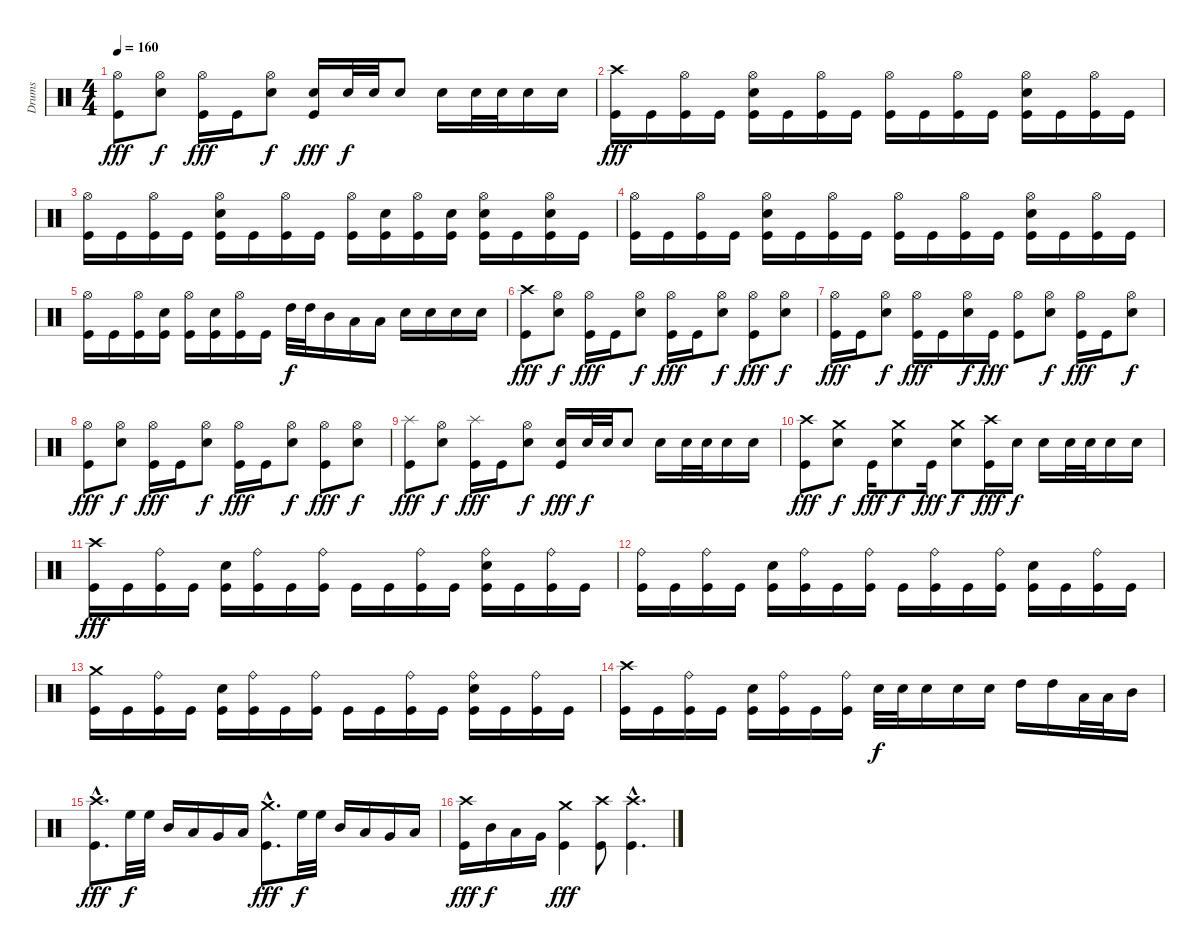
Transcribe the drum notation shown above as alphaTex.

\track ("Drums" "Drums") {instrument percussion}
\staff {score}
\articulation defaults
\ts (4 4)
\tempo 160
\clef neutral
\ks c
("Hi-Hat (open)" "Kick (hit)").8{dy fff} ("Hi-Hat (open)" "Electric Snare (hit)").8{dy f} ("Hi-Hat (open)" "Kick (hit)").16{dy fff} "Kick (hit)".16 ("Hi-Hat (open)" "Electric Snare (hit)").8{dy f} ("Electric Snare (hit)" "Kick (hit)").16{dy fff} "Electric Snare (hit)".32{dy f} "Electric Snare (hit)".32 "Electric Snare (hit)".8 "Electric Snare (hit)".16 "Electric Snare (hit)".32 "Electric Snare (hit)".32 "Electric Snare (hit)".16 "Electric Snare (hit)".16 |
("Crash high (hit)" "Kick (hit)").16{dy fff} "Kick (hit)".16 ("Hi-Hat (open)" "Kick (hit)").16 "Kick (hit)".16 ("Hi-Hat (open)" "Electric Snare (hit)" "Kick (hit)").16 "Kick (hit)".16 ("Hi-Hat (open)" "Kick (hit)").16 "Kick (hit)".16 ("Hi-Hat (open)" "Kick (hit)").16 "Kick (hit)".16 ("Hi-Hat (open)" "Kick (hit)").16 "Kick (hit)".16 ("Hi-Hat (open)" "Electric Snare (hit)" "Kick (hit)").16 "Kick (hit)".16 ("Hi-Hat (open)" "Kick (hit)").16 "Kick (hit)".16 |
("Hi-Hat (open)" "Kick (hit)").16 "Kick (hit)".16 ("Hi-Hat (open)" "Kick (hit)").16 "Kick (hit)".16 ("Hi-Hat (open)" "Electric Snare (hit)" "Kick (hit)").16 "Kick (hit)".16 ("Hi-Hat (open)" "Kick (hit)").16 "Kick (hit)".16 ("Hi-Hat (open)" "Kick (hit)").16 ("Electric Snare (hit)" "Kick (hit)").16 ("Hi-Hat (open)" "Kick (hit)").16 ("Electric Snare (hit)" "Kick (hit)").16 ("Hi-Hat (open)" "Electric Snare (hit)" "Kick (hit)").16 "Kick (hit)".16 ("Hi-Hat (open)" "Electric Snare (hit)" "Kick (hit)").16 "Kick (hit)".16 |
("Hi-Hat (open)" "Kick (hit)").16 "Kick (hit)".16 ("Hi-Hat (open)" "Kick (hit)").16 "Kick (hit)".16 ("Hi-Hat (open)" "Electric Snare (hit)" "Kick (hit)").16 "Kick (hit)".16 ("Hi-Hat (open)" "Kick (hit)").16 "Kick (hit)".16 ("Hi-Hat (open)" "Kick (hit)").16 "Kick (hit)".16 ("Hi-Hat (open)" "Kick (hit)").16 "Kick (hit)".16 ("Hi-Hat (open)" "Electric Snare (hit)" "Kick (hit)").16 "Kick (hit)".16 ("Hi-Hat (open)" "Kick (hit)").16 "Kick (hit)".16 |
("Hi-Hat (open)" "Kick (hit)").16 "Kick (hit)".16 ("Hi-Hat (open)" "Kick (hit)").16 ("Electric Snare (hit)" "Kick (hit)").16 ("Hi-Hat (open)" "Kick (hit)").16 ("Electric Snare (hit)" "Kick (hit)").16 ("Hi-Hat (open)" "Kick (hit)").16 "Kick (hit)".16 "High Tom (hit)".32{dy f} "High Tom (hit)".32 "Mid Tom (hit)".16 "Low Tom (hit)".16 "Low Tom (hit)".16 "Electric Snare (hit)".16 "Electric Snare (hit)".16 "Electric Snare (hit)".16 "Electric Snare (hit)".16 |
("Crash high (hit)" "Kick (hit)").8{dy fff} ("Hi-Hat (open)" "Electric Snare (hit)").8{dy f} ("Hi-Hat (open)" "Kick (hit)").16{dy fff} "Kick (hit)".16 ("Hi-Hat (open)" "Electric Snare (hit)").8{dy f} ("Hi-Hat (open)" "Kick (hit)").16{dy fff} "Kick (hit)".16 ("Hi-Hat (open)" "Electric Snare (hit)").8{dy f} ("Hi-Hat (open)" "Kick (hit)").8{dy fff} ("Hi-Hat (open)" "Electric Snare (hit)").8{dy f} |
("Hi-Hat (open)" "Kick (hit)").16{dy fff} "Kick (hit)".16 ("Hi-Hat (open)" "Electric Snare (hit)").8{dy f} ("Hi-Hat (open)" "Kick (hit)").16{dy fff} "Kick (hit)".16 ("Hi-Hat (open)" "Electric Snare (hit)").16{dy f} "Kick (hit)".16{dy fff} ("Hi-Hat (open)" "Kick (hit)").8 ("Hi-Hat (open)" "Electric Snare (hit)").8{dy f} ("Hi-Hat (open)" "Kick (hit)").16{dy fff} "Kick (hit)".16 ("Hi-Hat (open)" "Electric Snare (hit)").8{dy f} |
("Hi-Hat (open)" "Kick (hit)").8{dy fff} ("Hi-Hat (open)" "Electric Snare (hit)").8{dy f} ("Hi-Hat (open)" "Kick (hit)").16{dy fff} "Kick (hit)".16 ("Hi-Hat (open)" "Electric Snare (hit)").8{dy f} ("Hi-Hat (open)" "Kick (hit)").16{dy fff} "Kick (hit)".16 ("Hi-Hat (open)" "Electric Snare (hit)").8{dy f} ("Hi-Hat (open)" "Kick (hit)").8{dy fff} ("Hi-Hat (open)" "Electric Snare (hit)").8{dy f} |
("Splash (hit)" "Kick (hit)").8{dy fff} ("Hi-Hat (open)" "Electric Snare (hit)").8{dy f} ("Splash (hit)" "Kick (hit)").16{dy fff} "Kick (hit)".16 ("Hi-Hat (open)" "Electric Snare (hit)").8{dy f} ("Electric Snare (hit)" "Kick (hit)").16{dy fff} "Electric Snare (hit)".32{dy f} "Electric Snare (hit)".32 "Electric Snare (hit)".8 "Electric Snare (hit)".16 "Electric Snare (hit)".32 "Electric Snare (hit)".32 "Electric Snare (hit)".16 "Electric Snare (hit)".16 |
("Crash high (hit)" "Kick (hit)").8{dy fff} ("Crash medium (hit)" "Electric Snare (hit)").8{dy f} "Kick (hit)".16{dy fff} ("Crash medium (hit)" "Electric Snare (hit)").8{dy f} "Kick (hit)".16{dy fff} ("Crash medium (hit)" "Electric Snare (hit)").8{dy f} ("Crash high (hit)" "Kick (hit)").16{dy fff} "Electric Snare (hit)".16{dy f} "Electric Snare (hit)".16 "Electric Snare (hit)".32 "Electric Snare (hit)".32 "Electric Snare (hit)".16 "Electric Snare (hit)".16 |
("Crash high (hit)" "Kick (hit)").16{dy fff} "Kick (hit)".16 ("Ride (bell)" "Kick (hit)").16 "Kick (hit)".16 ("Electric Snare (hit)" "Kick (hit)").16 ("Ride (bell)" "Kick (hit)").16 "Kick (hit)".16 ("Ride (bell)" "Kick (hit)").16 "Kick (hit)".16 "Kick (hit)".16 ("Ride (bell)" "Kick (hit)").16 "Kick (hit)".16 ("Ride (bell)" "Electric Snare (hit)" "Kick (hit)").16 "Kick (hit)".16 ("Ride (bell)" "Kick (hit)").16 "Kick (hit)".16 |
("Ride (bell)" "Kick (hit)").16 "Kick (hit)".16 ("Ride (bell)" "Kick (hit)").16 "Kick (hit)".16 ("Electric Snare (hit)" "Kick (hit)").16 ("Ride (bell)" "Kick (hit)").16 "Kick (hit)".16 ("Ride (bell)" "Kick (hit)").16 "Kick (hit)".16 ("Ride (bell)" "Kick (hit)").16 "Kick (hit)".16 ("Ride (bell)" "Kick (hit)").16 ("Electric Snare (hit)" "Kick (hit)").16 "Kick (hit)".16 ("Ride (bell)" "Kick (hit)").16 "Kick (hit)".16 |
("Crash medium (hit)" "Kick (hit)").16 "Kick (hit)".16 ("Ride (bell)" "Kick (hit)").16 "Kick (hit)".16 ("Electric Snare (hit)" "Kick (hit)").16 ("Ride (bell)" "Kick (hit)").16 "Kick (hit)".16 ("Ride (bell)" "Kick (hit)").16 "Kick (hit)".16 "Kick (hit)".16 ("Ride (bell)" "Kick (hit)").16 "Kick (hit)".16 ("Ride (bell)" "Electric Snare (hit)" "Kick (hit)").16 "Kick (hit)".16 ("Ride (bell)" "Kick (hit)").16 "Kick (hit)".16 |
("Crash high (hit)" "Kick (hit)").16 "Kick (hit)".16 ("Ride (bell)" "Kick (hit)").16 "Kick (hit)".16 ("Electric Snare (hit)" "Kick (hit)").16 ("Ride (bell)" "Kick (hit)").16 "Kick (hit)".16 ("Ride (bell)" "Kick (hit)").16 "Electric Snare (hit)".32{dy f} "Electric Snare (hit)".32 "Electric Snare (hit)".16 "Electric Snare (hit)".16 "Electric Snare (hit)".16 "High Tom (hit)".16 "High Tom (hit)".16 "Low Tom (hit)".32 "Low Tom (hit)".32 "Mid Tom (hit)".16 |
("Crash high (hit)"{hac} "Kick (hit)"{hac}).8{d dy fff} "High Floor Tom (hit)".32{dy f} "High Floor Tom (hit)".32 "Mid Tom (hit)".16 "Low Tom (hit)".16 "Very Low Tom (hit)".16 "Low Floor Tom (hit)".16 ("Crash medium (hit)"{hac} "Kick (hit)"{hac}).8{d dy fff} "High Floor Tom (hit)".32{dy f} "High Floor Tom (hit)".32 "Mid Tom (hit)".16 "Low Tom (hit)".16 "Very Low Tom (hit)".16 "Low Floor Tom (hit)".16 |
("Crash high (hit)" "Kick (hit)").16{dy fff} "Mid Tom (hit)".16{dy f} "Low Tom (hit)".16 "Very Low Tom (hit)".16 ("Crash medium (hit)" "Kick (hit)").4{dy fff} ("Crash high (hit)" "Kick (hit)").8 ("Crash high (hit)"{hac} "Kick (hit)"{hac}).4{d}
